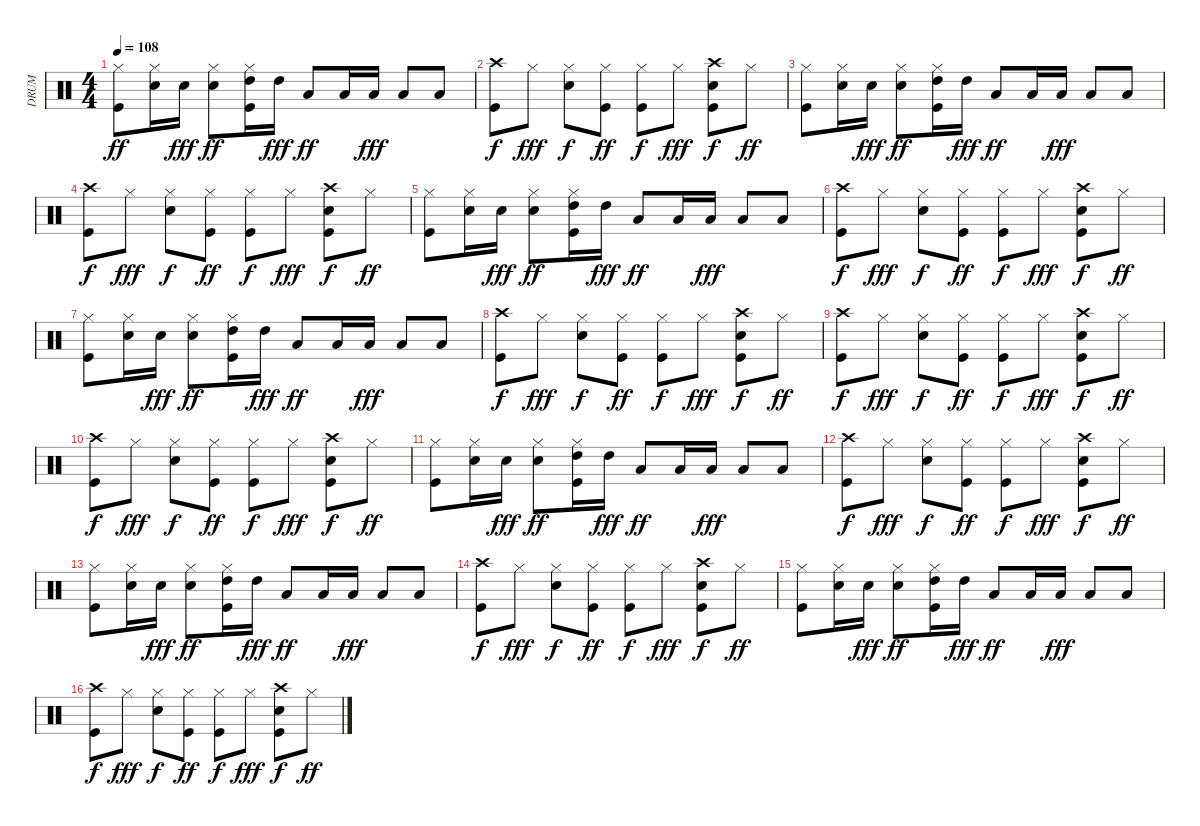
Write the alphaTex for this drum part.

\track ("DRUM" "DRUM") {instrument percussion}
\staff {score}
\articulation defaults
\ts (4 4)
\tempo 108
\clef neutral
\ks c
("Kick (hit)" "Hi-Hat (closed)").8{dy ff} ("Electric Snare (hit)" "Hi-Hat (closed)").16 "Electric Snare (hit)".16{dy fff} ("Electric Snare (hit)" "Hi-Hat (closed)").8{dy ff} ("Kick (hit)" "Hi-Hat (closed)" "High Tom (hit)").16 "High Tom (hit)".16{dy fff} "Low Tom (hit)".8{dy ff} "Low Tom (hit)".16 "Low Tom (hit)".16{dy fff} "Low Floor Tom (hit)".8 "Low Floor Tom (hit)".8 |
("Kick (hit)" "Crash high (hit)").8{dy f} "Hi-Hat (closed)".8{dy fff} ("Electric Snare (hit)" "Hi-Hat (closed)").8{dy f} ("Kick (hit)" "Hi-Hat (closed)").8{dy ff} ("Kick (hit)" "Hi-Hat (closed)").8{dy f} "Hi-Hat (closed)".8{dy fff} ("Electric Snare (hit)" "Kick (hit)" "Crash high (hit)").8{dy f} "Hi-Hat (closed)".8{dy ff} |
("Kick (hit)" "Hi-Hat (closed)").8 ("Electric Snare (hit)" "Hi-Hat (closed)").16 "Electric Snare (hit)".16{dy fff} ("Electric Snare (hit)" "Hi-Hat (closed)").8{dy ff} ("Kick (hit)" "Hi-Hat (closed)" "High Tom (hit)").16 "High Tom (hit)".16{dy fff} "Low Tom (hit)".8{dy ff} "Low Tom (hit)".16 "Low Tom (hit)".16{dy fff} "Low Floor Tom (hit)".8 "Low Floor Tom (hit)".8 |
("Kick (hit)" "Crash high (hit)").8{dy f} "Hi-Hat (closed)".8{dy fff} ("Electric Snare (hit)" "Hi-Hat (closed)").8{dy f} ("Kick (hit)" "Hi-Hat (closed)").8{dy ff} ("Kick (hit)" "Hi-Hat (closed)").8{dy f} "Hi-Hat (closed)".8{dy fff} ("Electric Snare (hit)" "Kick (hit)" "Crash high (hit)").8{dy f} "Hi-Hat (closed)".8{dy ff} |
("Kick (hit)" "Hi-Hat (closed)").8 ("Electric Snare (hit)" "Hi-Hat (closed)").16 "Electric Snare (hit)".16{dy fff} ("Electric Snare (hit)" "Hi-Hat (closed)").8{dy ff} ("Kick (hit)" "Hi-Hat (closed)" "High Tom (hit)").16 "High Tom (hit)".16{dy fff} "Low Tom (hit)".8{dy ff} "Low Tom (hit)".16 "Low Tom (hit)".16{dy fff} "Low Floor Tom (hit)".8 "Low Floor Tom (hit)".8 |
("Kick (hit)" "Crash high (hit)").8{dy f} "Hi-Hat (closed)".8{dy fff} ("Electric Snare (hit)" "Hi-Hat (closed)").8{dy f} ("Kick (hit)" "Hi-Hat (closed)").8{dy ff} ("Kick (hit)" "Hi-Hat (closed)").8{dy f} "Hi-Hat (closed)".8{dy fff} ("Electric Snare (hit)" "Kick (hit)" "Crash high (hit)").8{dy f} "Hi-Hat (closed)".8{dy ff} |
("Kick (hit)" "Hi-Hat (closed)").8 ("Electric Snare (hit)" "Hi-Hat (closed)").16 "Electric Snare (hit)".16{dy fff} ("Electric Snare (hit)" "Hi-Hat (closed)").8{dy ff} ("Kick (hit)" "Hi-Hat (closed)" "High Tom (hit)").16 "High Tom (hit)".16{dy fff} "Low Tom (hit)".8{dy ff} "Low Tom (hit)".16 "Low Tom (hit)".16{dy fff} "Low Floor Tom (hit)".8 "Low Floor Tom (hit)".8 |
("Kick (hit)" "Crash high (hit)").8{dy f} "Hi-Hat (closed)".8{dy fff} ("Electric Snare (hit)" "Hi-Hat (closed)").8{dy f} ("Kick (hit)" "Hi-Hat (closed)").8{dy ff} ("Kick (hit)" "Hi-Hat (closed)").8{dy f} "Hi-Hat (closed)".8{dy fff} ("Electric Snare (hit)" "Kick (hit)" "Crash high (hit)").8{dy f} "Hi-Hat (closed)".8{dy ff} |
("Kick (hit)" "Crash high (hit)").8{dy f} "Hi-Hat (closed)".8{dy fff} ("Electric Snare (hit)" "Hi-Hat (closed)").8{dy f} ("Kick (hit)" "Hi-Hat (closed)").8{dy ff} ("Kick (hit)" "Hi-Hat (closed)").8{dy f} "Hi-Hat (closed)".8{dy fff} ("Electric Snare (hit)" "Kick (hit)" "Crash high (hit)").8{dy f} "Hi-Hat (closed)".8{dy ff} |
("Kick (hit)" "Crash high (hit)").8{dy f} "Hi-Hat (closed)".8{dy fff} ("Electric Snare (hit)" "Hi-Hat (closed)").8{dy f} ("Kick (hit)" "Hi-Hat (closed)").8{dy ff} ("Kick (hit)" "Hi-Hat (closed)").8{dy f} "Hi-Hat (closed)".8{dy fff} ("Electric Snare (hit)" "Kick (hit)" "Crash high (hit)").8{dy f} "Hi-Hat (closed)".8{dy ff} |
("Kick (hit)" "Hi-Hat (closed)").8 ("Electric Snare (hit)" "Hi-Hat (closed)").16 "Electric Snare (hit)".16{dy fff} ("Electric Snare (hit)" "Hi-Hat (closed)").8{dy ff} ("Kick (hit)" "Hi-Hat (closed)" "High Tom (hit)").16 "High Tom (hit)".16{dy fff} "Low Tom (hit)".8{dy ff} "Low Tom (hit)".16 "Low Tom (hit)".16{dy fff} "Low Floor Tom (hit)".8 "Low Floor Tom (hit)".8 |
("Kick (hit)" "Crash high (hit)").8{dy f} "Hi-Hat (closed)".8{dy fff} ("Electric Snare (hit)" "Hi-Hat (closed)").8{dy f} ("Kick (hit)" "Hi-Hat (closed)").8{dy ff} ("Kick (hit)" "Hi-Hat (closed)").8{dy f} "Hi-Hat (closed)".8{dy fff} ("Electric Snare (hit)" "Kick (hit)" "Crash high (hit)").8{dy f} "Hi-Hat (closed)".8{dy ff} |
("Kick (hit)" "Hi-Hat (closed)").8 ("Electric Snare (hit)" "Hi-Hat (closed)").16 "Electric Snare (hit)".16{dy fff} ("Electric Snare (hit)" "Hi-Hat (closed)").8{dy ff} ("Kick (hit)" "Hi-Hat (closed)" "High Tom (hit)").16 "High Tom (hit)".16{dy fff} "Low Tom (hit)".8{dy ff} "Low Tom (hit)".16 "Low Tom (hit)".16{dy fff} "Low Floor Tom (hit)".8 "Low Floor Tom (hit)".8 |
("Kick (hit)" "Crash high (hit)").8{dy f} "Hi-Hat (closed)".8{dy fff} ("Electric Snare (hit)" "Hi-Hat (closed)").8{dy f} ("Kick (hit)" "Hi-Hat (closed)").8{dy ff} ("Kick (hit)" "Hi-Hat (closed)").8{dy f} "Hi-Hat (closed)".8{dy fff} ("Electric Snare (hit)" "Kick (hit)" "Crash high (hit)").8{dy f} "Hi-Hat (closed)".8{dy ff} |
("Kick (hit)" "Hi-Hat (closed)").8 ("Electric Snare (hit)" "Hi-Hat (closed)").16 "Electric Snare (hit)".16{dy fff} ("Electric Snare (hit)" "Hi-Hat (closed)").8{dy ff} ("Kick (hit)" "Hi-Hat (closed)" "High Tom (hit)").16 "High Tom (hit)".16{dy fff} "Low Tom (hit)".8{dy ff} "Low Tom (hit)".16 "Low Tom (hit)".16{dy fff} "Low Floor Tom (hit)".8 "Low Floor Tom (hit)".8 |
("Kick (hit)" "Crash high (hit)").8{dy f} "Hi-Hat (closed)".8{dy fff} ("Electric Snare (hit)" "Hi-Hat (closed)").8{dy f} ("Kick (hit)" "Hi-Hat (closed)").8{dy ff} ("Kick (hit)" "Hi-Hat (closed)").8{dy f} "Hi-Hat (closed)".8{dy fff} ("Electric Snare (hit)" "Kick (hit)" "Crash high (hit)").8{dy f} "Hi-Hat (closed)".8{dy ff}
